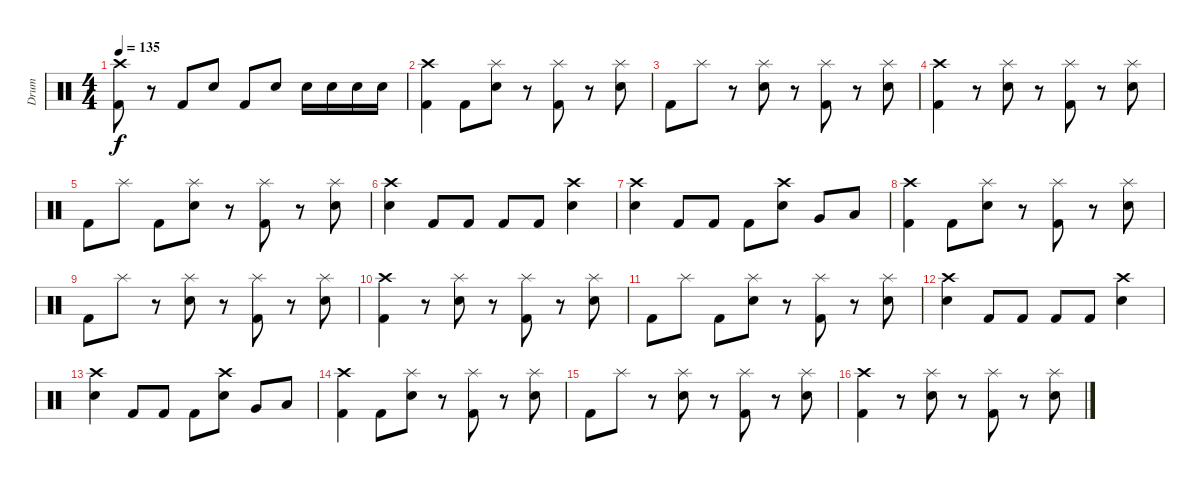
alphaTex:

\track ("Drum" "Drum") {instrument percussion}
\staff {score}
\articulation defaults
\ts (4 4)
\tempo 135
\clef neutral
\ks c
("Crash high (hit)" "Kick (hit) 2").8{dy f} r.8 "Kick (hit) 2".8 "Electric Snare (hit)".8 "Kick (hit) 2".8 "Electric Snare (hit)".8 "Electric Snare (hit)".16 "Electric Snare (hit)".16 "Electric Snare (hit)".16 "Electric Snare (hit)".16 |
("Crash high (hit)" "Kick (hit) 2").4 "Kick (hit) 2".8 ("Splash (hit)" "Electric Snare (hit)").8 r.8 ("Splash (hit)" "Kick (hit) 2").8 r.8 ("Splash (hit)" "Electric Snare (hit)").8 |
"Kick (hit) 2".8 "Splash (hit)".8 r.8 ("Splash (hit)" "Electric Snare (hit)").8 r.8 ("Splash (hit)" "Kick (hit) 2").8 r.8 ("Splash (hit)" "Electric Snare (hit)").8 |
("Crash high (hit)" "Kick (hit) 2").4 r.8 ("Splash (hit)" "Electric Snare (hit)").8 r.8 ("Splash (hit)" "Kick (hit) 2").8 r.8 ("Splash (hit)" "Electric Snare (hit)").8 |
"Kick (hit) 2".8 "Splash (hit)".8 "Kick (hit) 2".8 ("Splash (hit)" "Electric Snare (hit)").8 r.8 ("Splash (hit)" "Kick (hit) 2").8 r.8 ("Splash (hit)" "Electric Snare (hit)").8 |
("Crash high (hit)" "Electric Snare (hit)").4 "Kick (hit) 2".8 "Kick (hit) 2".8 "Kick (hit) 2".8 "Kick (hit) 2".8 ("Crash high (hit)" "Electric Snare (hit)").4 |
("Crash high (hit)" "Electric Snare (hit)").4 "Kick (hit) 2".8 "Kick (hit) 2".8 "Kick (hit) 2".8 ("Crash high (hit)" "Electric Snare (hit)").8 "Very Low Tom (hit)".8 "Low Floor Tom (hit)".8 |
("Crash high (hit)" "Kick (hit) 2").4 "Kick (hit) 2".8 ("Splash (hit)" "Electric Snare (hit)").8 r.8 ("Splash (hit)" "Kick (hit) 2").8 r.8 ("Splash (hit)" "Electric Snare (hit)").8 |
"Kick (hit) 2".8 "Splash (hit)".8 r.8 ("Splash (hit)" "Electric Snare (hit)").8 r.8 ("Splash (hit)" "Kick (hit) 2").8 r.8 ("Splash (hit)" "Electric Snare (hit)").8 |
("Crash high (hit)" "Kick (hit) 2").4 r.8 ("Splash (hit)" "Electric Snare (hit)").8 r.8 ("Splash (hit)" "Kick (hit) 2").8 r.8 ("Splash (hit)" "Electric Snare (hit)").8 |
"Kick (hit) 2".8 "Splash (hit)".8 "Kick (hit) 2".8 ("Splash (hit)" "Electric Snare (hit)").8 r.8 ("Splash (hit)" "Kick (hit) 2").8 r.8 ("Splash (hit)" "Electric Snare (hit)").8 |
("Crash high (hit)" "Electric Snare (hit)").4 "Kick (hit) 2".8 "Kick (hit) 2".8 "Kick (hit) 2".8 "Kick (hit) 2".8 ("Crash high (hit)" "Electric Snare (hit)").4 |
("Crash high (hit)" "Electric Snare (hit)").4 "Kick (hit) 2".8 "Kick (hit) 2".8 "Kick (hit) 2".8 ("Crash high (hit)" "Electric Snare (hit)").8 "Very Low Tom (hit)".8 "Low Floor Tom (hit)".8 |
("Crash high (hit)" "Kick (hit) 2").4 "Kick (hit) 2".8 ("Splash (hit)" "Electric Snare (hit)").8 r.8 ("Splash (hit)" "Kick (hit) 2").8 r.8 ("Splash (hit)" "Electric Snare (hit)").8 |
"Kick (hit) 2".8 "Splash (hit)".8 r.8 ("Splash (hit)" "Electric Snare (hit)").8 r.8 ("Splash (hit)" "Kick (hit) 2").8 r.8 ("Splash (hit)" "Electric Snare (hit)").8 |
("Crash high (hit)" "Kick (hit) 2").4 r.8 ("Splash (hit)" "Electric Snare (hit)").8 r.8 ("Splash (hit)" "Kick (hit) 2").8 r.8 ("Splash (hit)" "Electric Snare (hit)").8
